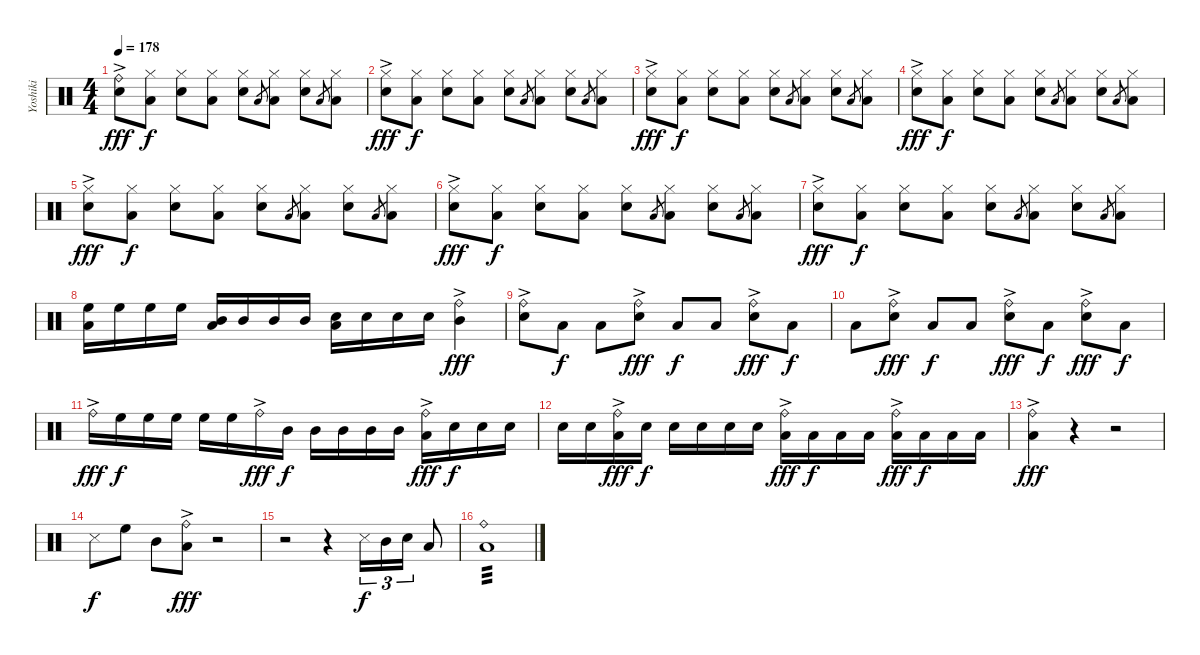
\track ("Yoshiki" "Yoshiki") {instrument percussion}
\staff {score}
\articulation defaults
\ts (4 4)
\tempo 178
\clef neutral
\ks c
("Ride (bell)"{ac} "Snare (hit) 2").8{dy fff} ("Hi-Hat (closed)" "Low Floor Tom (hit)").8{dy f} ("Hi-Hat (closed)" "Snare (hit) 2").8 ("Hi-Hat (closed)" "Low Floor Tom (hit)").8 ("Hi-Hat (closed)" "Snare (hit) 2").8 "Low Floor Tom (hit)".8{gr} ("Hi-Hat (closed)" "Low Floor Tom (hit)").8 ("Hi-Hat (closed)" "Snare (hit) 2").8 "Low Floor Tom (hit)".8{gr} ("Hi-Hat (closed)" "Low Floor Tom (hit)").8 |
("Hi-Hat (closed)"{ac} "Snare (hit) 2").8{dy fff} ("Hi-Hat (closed)" "Low Floor Tom (hit)").8{dy f} ("Hi-Hat (closed)" "Snare (hit) 2").8 ("Hi-Hat (closed)" "Low Floor Tom (hit)").8 ("Hi-Hat (closed)" "Snare (hit) 2").8 "Low Floor Tom (hit)".8{gr} ("Hi-Hat (closed)" "Low Floor Tom (hit)").8 ("Hi-Hat (closed)" "Snare (hit) 2").8 "Low Floor Tom (hit)".8{gr} ("Hi-Hat (closed)" "Low Floor Tom (hit)").8 |
("Hi-Hat (closed)"{ac} "Snare (hit) 2").8{dy fff} ("Hi-Hat (closed)" "Low Floor Tom (hit)").8{dy f} ("Hi-Hat (closed)" "Snare (hit) 2").8 ("Hi-Hat (closed)" "Low Floor Tom (hit)").8 ("Hi-Hat (closed)" "Snare (hit) 2").8 "Low Floor Tom (hit)".8{gr} ("Hi-Hat (closed)" "Low Floor Tom (hit)").8 ("Hi-Hat (closed)" "Snare (hit) 2").8 "Low Floor Tom (hit)".8{gr} ("Hi-Hat (closed)" "Low Floor Tom (hit)").8 |
("Hi-Hat (closed)"{ac} "Snare (hit) 2").8{dy fff} ("Hi-Hat (closed)" "Low Floor Tom (hit)").8{dy f} ("Hi-Hat (closed)" "Snare (hit) 2").8 ("Hi-Hat (closed)" "Low Floor Tom (hit)").8 ("Hi-Hat (closed)" "Snare (hit) 2").8 "Low Floor Tom (hit)".8{gr} ("Hi-Hat (closed)" "Low Floor Tom (hit)").8 ("Hi-Hat (closed)" "Snare (hit) 2").8 "Low Floor Tom (hit)".8{gr} ("Hi-Hat (closed)" "Low Floor Tom (hit)").8 |
("Hi-Hat (closed)"{ac} "Snare (hit) 2").8{dy fff} ("Hi-Hat (closed)" "Low Floor Tom (hit)").8{dy f} ("Hi-Hat (closed)" "Snare (hit) 2").8 ("Hi-Hat (closed)" "Low Floor Tom (hit)").8 ("Hi-Hat (closed)" "Snare (hit) 2").8 "Low Floor Tom (hit)".8{gr} ("Hi-Hat (closed)" "Low Floor Tom (hit)").8 ("Hi-Hat (closed)" "Snare (hit) 2").8 "Low Floor Tom (hit)".8{gr} ("Hi-Hat (closed)" "Low Floor Tom (hit)").8 |
("Hi-Hat (closed)"{ac} "Snare (hit) 2").8{dy fff} ("Hi-Hat (closed)" "Low Floor Tom (hit)").8{dy f} ("Hi-Hat (closed)" "Snare (hit) 2").8 ("Hi-Hat (closed)" "Low Floor Tom (hit)").8 ("Hi-Hat (closed)" "Snare (hit) 2").8 "Low Floor Tom (hit)".8{gr} ("Hi-Hat (closed)" "Low Floor Tom (hit)").8 ("Hi-Hat (closed)" "Snare (hit) 2").8 "Low Floor Tom (hit)".8{gr} ("Hi-Hat (closed)" "Low Floor Tom (hit)").8 |
("Hi-Hat (closed)"{ac} "Snare (hit) 2").8{dy fff} ("Hi-Hat (closed)" "Low Floor Tom (hit)").8{dy f} ("Hi-Hat (closed)" "Snare (hit) 2").8 ("Hi-Hat (closed)" "Low Floor Tom (hit)").8 ("Hi-Hat (closed)" "Snare (hit) 2").8 "Low Floor Tom (hit)".8{gr} ("Hi-Hat (closed)" "Low Floor Tom (hit)").8 ("Hi-Hat (closed)" "Snare (hit) 2").8 "Low Floor Tom (hit)".8{gr} ("Hi-Hat (closed)" "Low Floor Tom (hit)").8 |
("High Floor Tom (hit)" "Low Floor Tom (hit)").16 "High Floor Tom (hit)".16 "High Floor Tom (hit)".16 "High Floor Tom (hit)".16 ("Mid Tom (hit)" "Low Floor Tom (hit)").16 "Mid Tom (hit)".16 "Mid Tom (hit)".16 "Mid Tom (hit)".16 ("Snare (hit) 2" "Low Floor Tom (hit)").16 "Snare (hit) 2".16 "Snare (hit) 2".16 "Snare (hit) 2".16 ("Mid Tom (hit)" "Ride (bell)"{ac}).4{dy fff} |
("Ride (bell)"{ac} "Snare (hit) 2").8 "Low Floor Tom (hit)".8{dy f} "Low Floor Tom (hit)".8 ("Ride (bell)"{ac} "Snare (hit) 2").8{dy fff} "Low Floor Tom (hit)".8{dy f} "Low Floor Tom (hit)".8 ("Ride (bell)"{ac} "Snare (hit) 2").8{dy fff} "Low Floor Tom (hit)".8{dy f} |
"Low Floor Tom (hit)".8 ("Ride (bell)"{ac} "Snare (hit) 2").8{dy fff} "Low Floor Tom (hit)".8{dy f} "Low Floor Tom (hit)".8 ("Ride (bell)"{ac} "Snare (hit) 2").8{dy fff} "Low Floor Tom (hit)".8{dy f} ("Ride (bell)"{ac} "Snare (hit) 2").8{dy fff} "Low Floor Tom (hit)".8{dy f} |
"Ride (bell)"{ac}.16{dy fff} "High Floor Tom (hit)".16{dy f} "High Floor Tom (hit)".16 "High Floor Tom (hit)".16 "High Floor Tom (hit)".16 "High Floor Tom (hit)".16 "Ride (bell)"{ac}.16{dy fff} "Mid Tom (hit)".16{dy f} "Mid Tom (hit)".16 "Mid Tom (hit)".16 "Mid Tom (hit)".16 "Mid Tom (hit)".16 ("Ride (bell)"{ac} "Low Floor Tom (hit)").16{dy fff} "Snare (hit) 2".16{dy f} "Snare (hit) 2".16 "Snare (hit) 2".16 |
"Snare (hit) 2".16 "Snare (hit) 2".16 ("Low Floor Tom (hit)" "Ride (bell)"{ac}).16{dy fff} "Snare (hit) 2".16{dy f} "Snare (hit) 2".16 "Snare (hit) 2".16 "Snare (hit) 2".16 "Snare (hit) 2".16 ("Low Floor Tom (hit)" "Ride (bell)"{ac}).16{dy fff} "Low Tom (hit)".16{dy f} "Low Tom (hit)".16 "Low Tom (hit)".16 ("Low Floor Tom (hit)" "Ride (bell)"{ac}).16{dy fff} "Low Tom (hit)".16{dy f} "Low Tom (hit)".16 "Low Tom (hit)".16 |
("Low Floor Tom (hit)" "Ride (bell)"{ac}).4{dy fff} r.4 r.2 |
"Snare (side stick) 3".8{dy f} "High Floor Tom (hit)".8 "Mid Tom (hit)".8 ("Ride (bell)"{ac} "Low Floor Tom (hit)").8{dy fff} r.2 |
r.2 r.4 "Snare (side stick) 3".16{tu (3 2) dy f} "Mid Tom (hit)".16{tu (3 2)} "Snare (hit) 2".16{tu (3 2)} "Low Floor Tom (hit)".8 |
("Ride (bell)" "Low Floor Tom (hit)").1{tp 3}
